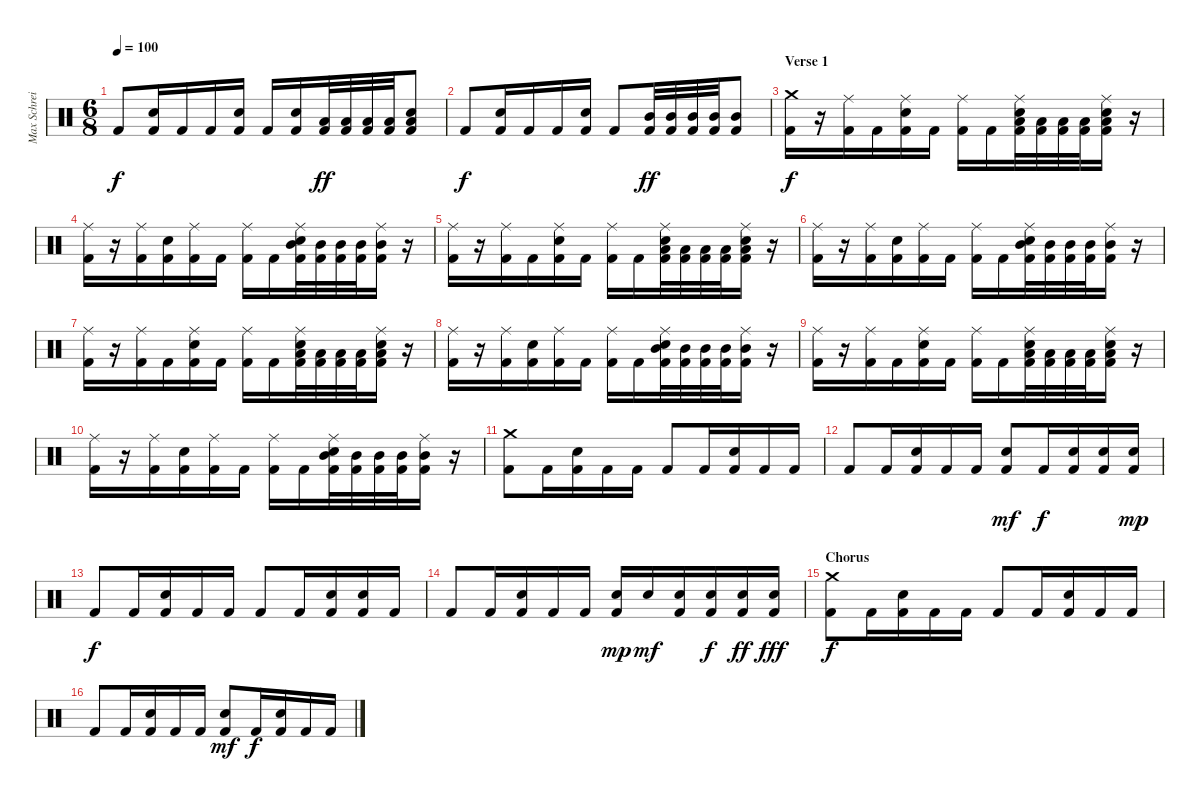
\track ("Max Schreiber " "Max Schrei") {instrument percussion}
\staff {score}
\articulation defaults
\ts (6 8)
\tempo 100
\clef neutral
\ks c "Kick (hit) 2".8{dy f}
("Electric Snare (hit)" "Kick (hit) 2").16 "Kick (hit) 2".16 "Kick (hit) 2".16 ("Electric Snare (hit)" "Kick (hit) 2").16 "Kick (hit) 2".16 ("Electric Snare (hit)" "Kick (hit) 2").16 ("Low Floor Tom (hit)" "Kick (hit) 2").32{dy ff} ("Low Floor Tom (hit)" "Kick (hit) 2").32 ("Low Floor Tom (hit)" "Kick (hit) 2").32 ("Low Floor Tom (hit)" "Kick (hit) 2").32 ("Electric Snare (hit)" "Low Floor Tom (hit)" "Kick (hit) 2").8 |
"Kick (hit) 2".8{dy f} ("Electric Snare (hit)" "Kick (hit) 2").16 "Kick (hit) 2".16 "Kick (hit) 2".16 ("Electric Snare (hit)" "Kick (hit) 2").16 "Kick (hit) 2".8 ("Mid Tom (hit)" "Kick (hit) 2").32{dy ff} ("Mid Tom (hit)" "Kick (hit) 2").32 ("Mid Tom (hit)" "Kick (hit) 2").32 ("Mid Tom (hit)" "Kick (hit) 2").32 ("Mid Tom (hit)" "Kick (hit) 2").8 |
\section ("" "Verse 1")
("Crash medium (hit)" "Kick (hit) 2").16{dy f} r.16 ("Ride (middle)" "Kick (hit) 2").16 "Kick (hit) 2".16 ("Ride (middle)" "Electric Snare (hit)" "Kick (hit) 2").16 "Kick (hit) 2".16 ("Ride (middle)" "Kick (hit) 2").16 "Kick (hit) 2".16 ("Ride (middle)" "Electric Snare (hit)" "Low Floor Tom (hit)" "Kick (hit) 2").32 ("Low Floor Tom (hit)" "Kick (hit) 2").32 ("Low Floor Tom (hit)" "Kick (hit) 2").32 ("Low Floor Tom (hit)" "Kick (hit) 2").32 ("Ride (middle)" "Electric Snare (hit)" "Low Floor Tom (hit)" "Kick (hit) 2").16 r.16 |
("Ride (middle)" "Kick (hit) 2").16 r.16 ("Ride (middle)" "Kick (hit) 2").16 ("Electric Snare (hit)" "Kick (hit) 2").16 ("Ride (middle)" "Kick (hit) 2").16 "Kick (hit) 2".16 ("Ride (middle)" "Kick (hit) 2").16 "Kick (hit) 2".16 ("Ride (middle)" "Electric Snare (hit)" "Mid Tom (hit)" "Kick (hit) 2").32 ("Mid Tom (hit)" "Kick (hit) 2").32 ("Mid Tom (hit)" "Kick (hit) 2").32 ("Mid Tom (hit)" "Kick (hit) 2").32 ("Ride (middle)" "Mid Tom (hit)" "Kick (hit) 2").16 r.16 |
("Ride (middle)" "Kick (hit) 2").16 r.16 ("Ride (middle)" "Kick (hit) 2").16 "Kick (hit) 2".16 ("Ride (middle)" "Electric Snare (hit)" "Kick (hit) 2").16 "Kick (hit) 2".16 ("Ride (middle)" "Kick (hit) 2").16 "Kick (hit) 2".16 ("Ride (middle)" "Electric Snare (hit)" "Low Floor Tom (hit)" "Kick (hit) 2").32 ("Low Floor Tom (hit)" "Kick (hit) 2").32 ("Low Floor Tom (hit)" "Kick (hit) 2").32 ("Low Floor Tom (hit)" "Kick (hit) 2").32 ("Ride (middle)" "Electric Snare (hit)" "Low Floor Tom (hit)" "Kick (hit) 2").16 r.16 |
("Ride (middle)" "Kick (hit) 2").16 r.16 ("Ride (middle)" "Kick (hit) 2").16 ("Electric Snare (hit)" "Kick (hit) 2").16 ("Ride (middle)" "Kick (hit) 2").16 "Kick (hit) 2".16 ("Ride (middle)" "Kick (hit) 2").16 "Kick (hit) 2".16 ("Ride (middle)" "Electric Snare (hit)" "Mid Tom (hit)" "Kick (hit) 2").32 ("Mid Tom (hit)" "Kick (hit) 2").32 ("Mid Tom (hit)" "Kick (hit) 2").32 ("Mid Tom (hit)" "Kick (hit) 2").32 ("Ride (middle)" "Mid Tom (hit)" "Kick (hit) 2").16 r.16 |
("Ride (middle)" "Kick (hit) 2").16 r.16 ("Ride (middle)" "Kick (hit) 2").16 "Kick (hit) 2".16 ("Ride (middle)" "Electric Snare (hit)" "Kick (hit) 2").16 "Kick (hit) 2".16 ("Ride (middle)" "Kick (hit) 2").16 "Kick (hit) 2".16 ("Ride (middle)" "Electric Snare (hit)" "Low Floor Tom (hit)" "Kick (hit) 2").32 ("Low Floor Tom (hit)" "Kick (hit) 2").32 ("Low Floor Tom (hit)" "Kick (hit) 2").32 ("Low Floor Tom (hit)" "Kick (hit) 2").32 ("Ride (middle)" "Electric Snare (hit)" "Low Floor Tom (hit)" "Kick (hit) 2").16 r.16 |
("Ride (middle)" "Kick (hit) 2").16 r.16 ("Ride (middle)" "Kick (hit) 2").16 ("Electric Snare (hit)" "Kick (hit) 2").16 ("Ride (middle)" "Kick (hit) 2").16 "Kick (hit) 2".16 ("Ride (middle)" "Kick (hit) 2").16 "Kick (hit) 2".16 ("Ride (middle)" "Electric Snare (hit)" "Mid Tom (hit)" "Kick (hit) 2").32 ("Mid Tom (hit)" "Kick (hit) 2").32 ("Mid Tom (hit)" "Kick (hit) 2").32 ("Mid Tom (hit)" "Kick (hit) 2").32 ("Ride (middle)" "Mid Tom (hit)" "Kick (hit) 2").16 r.16 |
("Ride (middle)" "Kick (hit) 2").16 r.16 ("Ride (middle)" "Kick (hit) 2").16 "Kick (hit) 2".16 ("Ride (middle)" "Electric Snare (hit)" "Kick (hit) 2").16 "Kick (hit) 2".16 ("Ride (middle)" "Kick (hit) 2").16 "Kick (hit) 2".16 ("Ride (middle)" "Electric Snare (hit)" "Low Floor Tom (hit)" "Kick (hit) 2").32 ("Low Floor Tom (hit)" "Kick (hit) 2").32 ("Low Floor Tom (hit)" "Kick (hit) 2").32 ("Low Floor Tom (hit)" "Kick (hit) 2").32 ("Ride (middle)" "Electric Snare (hit)" "Low Floor Tom (hit)" "Kick (hit) 2").16 r.16 |
("Ride (middle)" "Kick (hit) 2").16 r.16 ("Ride (middle)" "Kick (hit) 2").16 ("Electric Snare (hit)" "Kick (hit) 2").16 ("Ride (middle)" "Kick (hit) 2").16 "Kick (hit) 2".16 ("Ride (middle)" "Kick (hit) 2").16 "Kick (hit) 2".16 ("Ride (middle)" "Electric Snare (hit)" "Mid Tom (hit)" "Kick (hit) 2").32 ("Mid Tom (hit)" "Kick (hit) 2").32 ("Mid Tom (hit)" "Kick (hit) 2").32 ("Mid Tom (hit)" "Kick (hit) 2").32 ("Ride (middle)" "Mid Tom (hit)" "Kick (hit) 2").16 r.16 |
("Crash medium (hit)" "Kick (hit) 2").8 "Kick (hit) 2".16 ("Electric Snare (hit)" "Kick (hit) 2").16 "Kick (hit) 2".16 "Kick (hit) 2".16 "Kick (hit) 2".8 "Kick (hit) 2".16 ("Electric Snare (hit)" "Kick (hit) 2").16 "Kick (hit) 2".16 "Kick (hit) 2".16 |
"Kick (hit) 2".8 "Kick (hit) 2".16 ("Electric Snare (hit)" "Kick (hit) 2").16 "Kick (hit) 2".16 "Kick (hit) 2".16 ("Electric Snare (hit)" "Kick (hit) 2").8{dy mf} "Kick (hit) 2".16{dy f} ("Electric Snare (hit)" "Kick (hit) 2").16 ("Electric Snare (hit)" "Kick (hit) 2").16 ("Electric Snare (hit)" "Kick (hit) 2").16{dy mp} |
"Kick (hit) 2".8{dy f} "Kick (hit) 2".16 ("Electric Snare (hit)" "Kick (hit) 2").16 "Kick (hit) 2".16 "Kick (hit) 2".16 "Kick (hit) 2".8 "Kick (hit) 2".16 ("Electric Snare (hit)" "Kick (hit) 2").16 ("Electric Snare (hit)" "Kick (hit) 2").16 "Kick (hit) 2".16 |
"Kick (hit) 2".8 "Kick (hit) 2".16 ("Electric Snare (hit)" "Kick (hit) 2").16 "Kick (hit) 2".16 "Kick (hit) 2".16 ("Electric Snare (hit)" "Kick (hit) 2").16{dy mp} "Electric Snare (hit)".16{dy mf} ("Electric Snare (hit)" "Kick (hit) 2").16 ("Electric Snare (hit)" "Kick (hit) 2").16{dy f} ("Electric Snare (hit)" "Kick (hit) 2").16{dy ff} ("Electric Snare (hit)" "Kick (hit) 2").16{dy fff} |
\section ("" "Chorus")
("Crash medium (hit)" "Kick (hit) 2").8{dy f} "Kick (hit) 2".16 ("Electric Snare (hit)" "Kick (hit) 2").16 "Kick (hit) 2".16 "Kick (hit) 2".16 "Kick (hit) 2".8 "Kick (hit) 2".16 ("Electric Snare (hit)" "Kick (hit) 2").16 "Kick (hit) 2".16 "Kick (hit) 2".16 |
"Kick (hit) 2".8 "Kick (hit) 2".16 ("Electric Snare (hit)" "Kick (hit) 2").16 "Kick (hit) 2".16 "Kick (hit) 2".16 ("Electric Snare (hit)" "Kick (hit) 2").8{dy mf} "Kick (hit) 2".16{dy f} ("Electric Snare (hit)" "Kick (hit) 2").16 "Kick (hit) 2".16 "Kick (hit) 2".16
